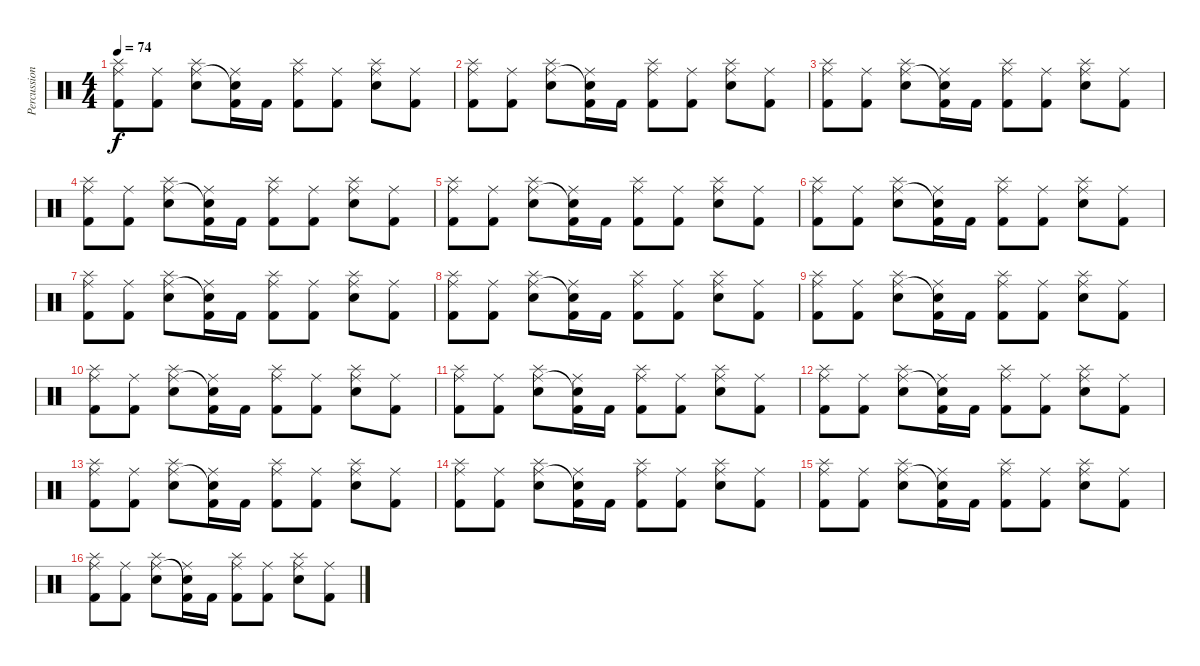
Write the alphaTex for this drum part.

\track ("Percussion" "Percussion") {instrument percussion}
\staff {score}
\articulation defaults
\ts (4 4)
\tempo 74
\clef neutral
\ks c
("Splash (hit)" "Ride (middle)" "Kick (hit) 2").8{dy f} ("Ride (middle)" "Kick (hit) 2").8 ("Splash (hit)" "Ride (middle)" "Electric Snare (hit)").8 ("Ride (middle)" "Snare (hit)"{t} "Kick (hit) 2").16 "Kick (hit) 2".16 ("Splash (hit)" "Ride (middle)" "Kick (hit) 2").8 ("Ride (middle)" "Kick (hit) 2").8 ("Splash (hit)" "Ride (middle)" "Electric Snare (hit)").8 ("Ride (middle)" "Kick (hit) 2").8 |
("Splash (hit)" "Ride (middle)" "Kick (hit) 2").8 ("Ride (middle)" "Kick (hit) 2").8 ("Splash (hit)" "Ride (middle)" "Electric Snare (hit)").8 ("Ride (middle)" "Snare (hit)"{t} "Kick (hit) 2").16 "Kick (hit) 2".16 ("Splash (hit)" "Ride (middle)" "Kick (hit) 2").8 ("Ride (middle)" "Kick (hit) 2").8 ("Splash (hit)" "Ride (middle)" "Electric Snare (hit)").8 ("Ride (middle)" "Kick (hit) 2").8 |
("Splash (hit)" "Ride (middle)" "Kick (hit) 2").8 ("Ride (middle)" "Kick (hit) 2").8 ("Splash (hit)" "Ride (middle)" "Electric Snare (hit)").8 ("Ride (middle)" "Snare (hit)"{t} "Kick (hit) 2").16 "Kick (hit) 2".16 ("Splash (hit)" "Ride (middle)" "Kick (hit) 2").8 ("Ride (middle)" "Kick (hit) 2").8 ("Splash (hit)" "Ride (middle)" "Electric Snare (hit)").8 ("Ride (middle)" "Kick (hit) 2").8 |
("Splash (hit)" "Ride (middle)" "Kick (hit) 2").8 ("Ride (middle)" "Kick (hit) 2").8 ("Splash (hit)" "Ride (middle)" "Electric Snare (hit)").8 ("Ride (middle)" "Snare (hit)"{t} "Kick (hit) 2").16 "Kick (hit) 2".16 ("Splash (hit)" "Ride (middle)" "Kick (hit) 2").8 ("Ride (middle)" "Kick (hit) 2").8 ("Splash (hit)" "Ride (middle)" "Electric Snare (hit)").8 ("Ride (middle)" "Kick (hit) 2").8 |
("Splash (hit)" "Ride (middle)" "Kick (hit) 2").8 ("Ride (middle)" "Kick (hit) 2").8 ("Splash (hit)" "Ride (middle)" "Electric Snare (hit)").8 ("Ride (middle)" "Snare (hit)"{t} "Kick (hit) 2").16 "Kick (hit) 2".16 ("Splash (hit)" "Ride (middle)" "Kick (hit) 2").8 ("Ride (middle)" "Kick (hit) 2").8 ("Splash (hit)" "Ride (middle)" "Electric Snare (hit)").8 ("Ride (middle)" "Kick (hit) 2").8 |
("Splash (hit)" "Ride (middle)" "Kick (hit) 2").8 ("Ride (middle)" "Kick (hit) 2").8 ("Splash (hit)" "Ride (middle)" "Electric Snare (hit)").8 ("Ride (middle)" "Snare (hit)"{t} "Kick (hit) 2").16 "Kick (hit) 2".16 ("Splash (hit)" "Ride (middle)" "Kick (hit) 2").8 ("Ride (middle)" "Kick (hit) 2").8 ("Splash (hit)" "Ride (middle)" "Electric Snare (hit)").8 ("Ride (middle)" "Kick (hit) 2").8 |
("Splash (hit)" "Ride (middle)" "Kick (hit) 2").8 ("Ride (middle)" "Kick (hit) 2").8 ("Splash (hit)" "Ride (middle)" "Electric Snare (hit)").8 ("Ride (middle)" "Snare (hit)"{t} "Kick (hit) 2").16 "Kick (hit) 2".16 ("Splash (hit)" "Ride (middle)" "Kick (hit) 2").8 ("Ride (middle)" "Kick (hit) 2").8 ("Splash (hit)" "Ride (middle)" "Electric Snare (hit)").8 ("Ride (middle)" "Kick (hit) 2").8 |
("Splash (hit)" "Ride (middle)" "Kick (hit) 2").8 ("Ride (middle)" "Kick (hit) 2").8 ("Splash (hit)" "Ride (middle)" "Electric Snare (hit)").8 ("Ride (middle)" "Snare (hit)"{t} "Kick (hit) 2").16 "Kick (hit) 2".16 ("Splash (hit)" "Ride (middle)" "Kick (hit) 2").8 ("Ride (middle)" "Kick (hit) 2").8 ("Splash (hit)" "Ride (middle)" "Electric Snare (hit)").8 ("Ride (middle)" "Kick (hit) 2").8 |
("Splash (hit)" "Ride (middle)" "Kick (hit) 2").8 ("Ride (middle)" "Kick (hit) 2").8 ("Splash (hit)" "Ride (middle)" "Electric Snare (hit)").8 ("Ride (middle)" "Snare (hit)"{t} "Kick (hit) 2").16 "Kick (hit) 2".16 ("Splash (hit)" "Ride (middle)" "Kick (hit) 2").8 ("Ride (middle)" "Kick (hit) 2").8 ("Splash (hit)" "Ride (middle)" "Electric Snare (hit)").8 ("Ride (middle)" "Kick (hit) 2").8 |
("Splash (hit)" "Ride (middle)" "Kick (hit) 2").8 ("Ride (middle)" "Kick (hit) 2").8 ("Splash (hit)" "Ride (middle)" "Electric Snare (hit)").8 ("Ride (middle)" "Snare (hit)"{t} "Kick (hit) 2").16 "Kick (hit) 2".16 ("Splash (hit)" "Ride (middle)" "Kick (hit) 2").8 ("Ride (middle)" "Kick (hit) 2").8 ("Splash (hit)" "Ride (middle)" "Electric Snare (hit)").8 ("Ride (middle)" "Kick (hit) 2").8 |
("Splash (hit)" "Ride (middle)" "Kick (hit) 2").8 ("Ride (middle)" "Kick (hit) 2").8 ("Splash (hit)" "Ride (middle)" "Electric Snare (hit)").8 ("Ride (middle)" "Snare (hit)"{t} "Kick (hit) 2").16 "Kick (hit) 2".16 ("Splash (hit)" "Ride (middle)" "Kick (hit) 2").8 ("Ride (middle)" "Kick (hit) 2").8 ("Splash (hit)" "Ride (middle)" "Electric Snare (hit)").8 ("Ride (middle)" "Kick (hit) 2").8 |
("Splash (hit)" "Ride (middle)" "Kick (hit) 2").8 ("Ride (middle)" "Kick (hit) 2").8 ("Splash (hit)" "Ride (middle)" "Electric Snare (hit)").8 ("Ride (middle)" "Snare (hit)"{t} "Kick (hit) 2").16 "Kick (hit) 2".16 ("Splash (hit)" "Ride (middle)" "Kick (hit) 2").8 ("Ride (middle)" "Kick (hit) 2").8 ("Splash (hit)" "Ride (middle)" "Electric Snare (hit)").8 ("Ride (middle)" "Kick (hit) 2").8 |
("Splash (hit)" "Ride (middle)" "Kick (hit) 2").8 ("Ride (middle)" "Kick (hit) 2").8 ("Splash (hit)" "Ride (middle)" "Electric Snare (hit)").8 ("Ride (middle)" "Snare (hit)"{t} "Kick (hit) 2").16 "Kick (hit) 2".16 ("Splash (hit)" "Ride (middle)" "Kick (hit) 2").8 ("Ride (middle)" "Kick (hit) 2").8 ("Splash (hit)" "Ride (middle)" "Electric Snare (hit)").8 ("Ride (middle)" "Kick (hit) 2").8 |
("Splash (hit)" "Ride (middle)" "Kick (hit) 2").8 ("Ride (middle)" "Kick (hit) 2").8 ("Splash (hit)" "Ride (middle)" "Electric Snare (hit)").8 ("Ride (middle)" "Snare (hit)"{t} "Kick (hit) 2").16 "Kick (hit) 2".16 ("Splash (hit)" "Ride (middle)" "Kick (hit) 2").8 ("Ride (middle)" "Kick (hit) 2").8 ("Splash (hit)" "Ride (middle)" "Electric Snare (hit)").8 ("Ride (middle)" "Kick (hit) 2").8 |
("Splash (hit)" "Ride (middle)" "Kick (hit) 2").8 ("Ride (middle)" "Kick (hit) 2").8 ("Splash (hit)" "Ride (middle)" "Electric Snare (hit)").8 ("Ride (middle)" "Snare (hit)"{t} "Kick (hit) 2").16 "Kick (hit) 2".16 ("Splash (hit)" "Ride (middle)" "Kick (hit) 2").8 ("Ride (middle)" "Kick (hit) 2").8 ("Splash (hit)" "Ride (middle)" "Electric Snare (hit)").8 ("Ride (middle)" "Kick (hit) 2").8 |
("Splash (hit)" "Ride (middle)" "Kick (hit) 2").8 ("Ride (middle)" "Kick (hit) 2").8 ("Splash (hit)" "Ride (middle)" "Electric Snare (hit)").8 ("Ride (middle)" "Snare (hit)"{t} "Kick (hit) 2").16 "Kick (hit) 2".16 ("Splash (hit)" "Ride (middle)" "Kick (hit) 2").8 ("Ride (middle)" "Kick (hit) 2").8 ("Splash (hit)" "Ride (middle)" "Electric Snare (hit)").8 ("Ride (middle)" "Kick (hit) 2").8
